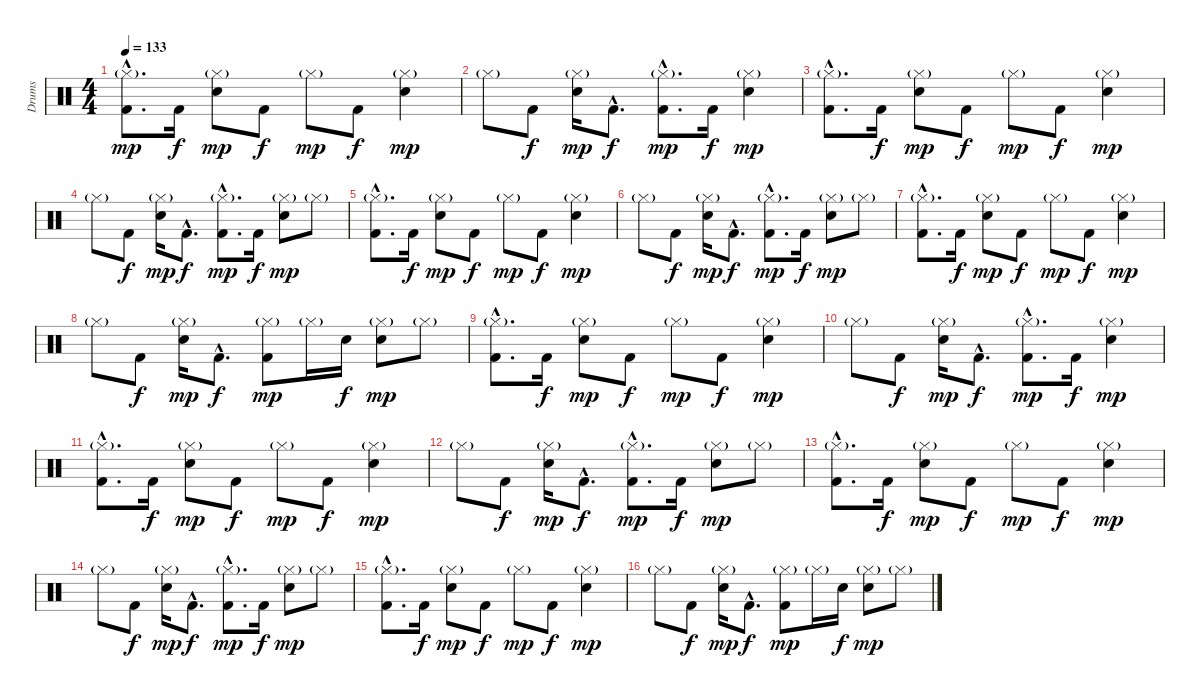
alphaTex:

\track ("Drums" "Drums") {instrument percussion}
\staff {score}
\articulation defaults
\ts (4 4)
\tempo 133
\clef neutral
\ks c
("Hi-Hat (closed)"{g hac} "Kick (hit) 2"{hac}).8{d dy mp} "Kick (hit) 2".16{dy f} ("Hi-Hat (closed)"{g} "Snare (hit) 2").8{dy mp} "Kick (hit) 2".8{dy f} "Hi-Hat (closed)"{g}.8{dy mp} "Kick (hit) 2".8{dy f} ("Hi-Hat (closed)"{g} "Snare (hit) 2").4{dy mp} |
"Hi-Hat (closed)"{g}.8 "Kick (hit) 2".8{dy f} ("Hi-Hat (closed)"{g} "Snare (hit) 2").16{dy mp} "Kick (hit) 2"{hac}.8{d dy f} ("Hi-Hat (closed)"{g hac} "Kick (hit) 2"{hac}).8{d dy mp} "Kick (hit) 2".16{dy f} ("Hi-Hat (closed)"{g} "Snare (hit) 2").4{dy mp} |
("Hi-Hat (closed)"{g hac} "Kick (hit) 2"{hac}).8{d} "Kick (hit) 2".16{dy f} ("Hi-Hat (closed)"{g} "Snare (hit) 2").8{dy mp} "Kick (hit) 2".8{dy f} "Hi-Hat (closed)"{g}.8{dy mp} "Kick (hit) 2".8{dy f} ("Hi-Hat (closed)"{g} "Snare (hit) 2").4{dy mp} |
"Hi-Hat (closed)"{g}.8 "Kick (hit) 2".8{dy f} ("Hi-Hat (closed)"{g} "Snare (hit) 2").16{dy mp} "Kick (hit) 2"{hac}.8{d dy f} ("Hi-Hat (closed)"{g hac} "Kick (hit) 2"{hac}).8{d dy mp} "Kick (hit) 2".16{dy f} ("Hi-Hat (closed)"{g} "Snare (hit) 2").8{dy mp} "Hi-Hat (closed)"{g}.8 |
("Hi-Hat (closed)"{g hac} "Kick (hit) 2"{hac}).8{d} "Kick (hit) 2".16{dy f} ("Hi-Hat (closed)"{g} "Snare (hit) 2").8{dy mp} "Kick (hit) 2".8{dy f} "Hi-Hat (closed)"{g}.8{dy mp} "Kick (hit) 2".8{dy f} ("Hi-Hat (closed)"{g} "Snare (hit) 2").4{dy mp} |
"Hi-Hat (closed)"{g}.8 "Kick (hit) 2".8{dy f} ("Hi-Hat (closed)"{g} "Snare (hit) 2").16{dy mp} "Kick (hit) 2"{hac}.8{d dy f} ("Hi-Hat (closed)"{g hac} "Kick (hit) 2"{hac}).8{d dy mp} "Kick (hit) 2".16{dy f} ("Hi-Hat (closed)"{g} "Snare (hit) 2").8{dy mp} "Hi-Hat (closed)"{g}.8 |
("Hi-Hat (closed)"{g hac} "Kick (hit) 2"{hac}).8{d} "Kick (hit) 2".16{dy f} ("Hi-Hat (closed)"{g} "Snare (hit) 2").8{dy mp} "Kick (hit) 2".8{dy f} "Hi-Hat (closed)"{g}.8{dy mp} "Kick (hit) 2".8{dy f} ("Hi-Hat (closed)"{g} "Snare (hit) 2").4{dy mp} |
"Hi-Hat (closed)"{g}.8 "Kick (hit) 2".8{dy f} ("Hi-Hat (closed)"{g} "Snare (hit) 2").16{dy mp} "Kick (hit) 2"{hac}.8{d dy f} ("Hi-Hat (closed)"{g} "Kick (hit) 2").8{dy mp} "Hi-Hat (closed)"{g}.16 "Snare (hit) 2".16{dy f} ("Hi-Hat (closed)"{g} "Snare (hit) 2").8{dy mp} "Hi-Hat (closed)"{g}.8 |
("Hi-Hat (closed)"{g hac} "Kick (hit) 2"{hac}).8{d} "Kick (hit) 2".16{dy f} ("Hi-Hat (closed)"{g} "Snare (hit) 2").8{dy mp} "Kick (hit) 2".8{dy f} "Hi-Hat (closed)"{g}.8{dy mp} "Kick (hit) 2".8{dy f} ("Hi-Hat (closed)"{g} "Snare (hit) 2").4{dy mp} |
"Hi-Hat (closed)"{g}.8 "Kick (hit) 2".8{dy f} ("Hi-Hat (closed)"{g} "Snare (hit) 2").16{dy mp} "Kick (hit) 2"{hac}.8{d dy f} ("Hi-Hat (closed)"{g hac} "Kick (hit) 2"{hac}).8{d dy mp} "Kick (hit) 2".16{dy f} ("Hi-Hat (closed)"{g} "Snare (hit) 2").4{dy mp} |
("Hi-Hat (closed)"{g hac} "Kick (hit) 2"{hac}).8{d} "Kick (hit) 2".16{dy f} ("Hi-Hat (closed)"{g} "Snare (hit) 2").8{dy mp} "Kick (hit) 2".8{dy f} "Hi-Hat (closed)"{g}.8{dy mp} "Kick (hit) 2".8{dy f} ("Hi-Hat (closed)"{g} "Snare (hit) 2").4{dy mp} |
"Hi-Hat (closed)"{g}.8 "Kick (hit) 2".8{dy f} ("Hi-Hat (closed)"{g} "Snare (hit) 2").16{dy mp} "Kick (hit) 2"{hac}.8{d dy f} ("Hi-Hat (closed)"{g hac} "Kick (hit) 2"{hac}).8{d dy mp} "Kick (hit) 2".16{dy f} ("Hi-Hat (closed)"{g} "Snare (hit) 2").8{dy mp} "Hi-Hat (closed)"{g}.8 |
("Hi-Hat (closed)"{g hac} "Kick (hit) 2"{hac}).8{d} "Kick (hit) 2".16{dy f} ("Hi-Hat (closed)"{g} "Snare (hit) 2").8{dy mp} "Kick (hit) 2".8{dy f} "Hi-Hat (closed)"{g}.8{dy mp} "Kick (hit) 2".8{dy f} ("Hi-Hat (closed)"{g} "Snare (hit) 2").4{dy mp} |
"Hi-Hat (closed)"{g}.8 "Kick (hit) 2".8{dy f} ("Hi-Hat (closed)"{g} "Snare (hit) 2").16{dy mp} "Kick (hit) 2"{hac}.8{d dy f} ("Hi-Hat (closed)"{g hac} "Kick (hit) 2"{hac}).8{d dy mp} "Kick (hit) 2".16{dy f} ("Hi-Hat (closed)"{g} "Snare (hit) 2").8{dy mp} "Hi-Hat (closed)"{g}.8 |
("Hi-Hat (closed)"{g hac} "Kick (hit) 2"{hac}).8{d} "Kick (hit) 2".16{dy f} ("Hi-Hat (closed)"{g} "Snare (hit) 2").8{dy mp} "Kick (hit) 2".8{dy f} "Hi-Hat (closed)"{g}.8{dy mp} "Kick (hit) 2".8{dy f} ("Hi-Hat (closed)"{g} "Snare (hit) 2").4{dy mp} |
"Hi-Hat (closed)"{g}.8 "Kick (hit) 2".8{dy f} ("Hi-Hat (closed)"{g} "Snare (hit) 2").16{dy mp} "Kick (hit) 2"{hac}.8{d dy f} ("Hi-Hat (closed)"{g} "Kick (hit) 2").8{dy mp} "Hi-Hat (closed)"{g}.16 "Snare (hit) 2".16{dy f} ("Hi-Hat (closed)"{g} "Snare (hit) 2").8{dy mp} "Hi-Hat (closed)"{g}.8
